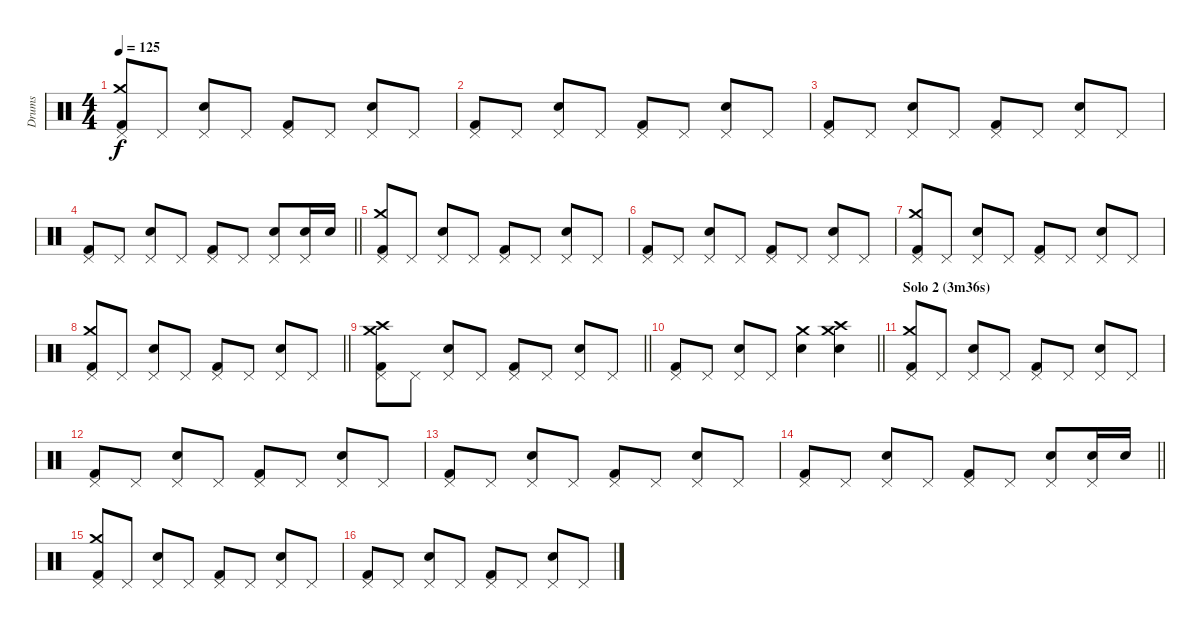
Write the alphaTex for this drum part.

\track ("Drums" "Drums") {instrument percussion}
\staff {score}
\articulation defaults
\ts (4 4)
\tempo 125
\clef neutral
\ks c
("Pedal Hi-Hat (hit)" "Crash medium (hit)" "Kick (hit) 2").8{dy f} "Pedal Hi-Hat (hit)".8 ("Pedal Hi-Hat (hit)" "Electric Snare (hit)").8 "Pedal Hi-Hat (hit)".8 ("Pedal Hi-Hat (hit)" "Kick (hit) 2").8 "Pedal Hi-Hat (hit)".8 ("Pedal Hi-Hat (hit)" "Electric Snare (hit)").8 "Pedal Hi-Hat (hit)".8 |
("Pedal Hi-Hat (hit)" "Kick (hit) 2").8 "Pedal Hi-Hat (hit)".8 ("Pedal Hi-Hat (hit)" "Electric Snare (hit)").8 "Pedal Hi-Hat (hit)".8 ("Pedal Hi-Hat (hit)" "Kick (hit) 2").8 "Pedal Hi-Hat (hit)".8 ("Pedal Hi-Hat (hit)" "Electric Snare (hit)").8 "Pedal Hi-Hat (hit)".8 |
("Pedal Hi-Hat (hit)" "Kick (hit) 2").8 "Pedal Hi-Hat (hit)".8 ("Pedal Hi-Hat (hit)" "Electric Snare (hit)").8 "Pedal Hi-Hat (hit)".8 ("Pedal Hi-Hat (hit)" "Kick (hit) 2").8 "Pedal Hi-Hat (hit)".8 ("Pedal Hi-Hat (hit)" "Electric Snare (hit)").8 "Pedal Hi-Hat (hit)".8 |
\barLineRight lightlight
("Pedal Hi-Hat (hit)" "Kick (hit) 2").8 "Pedal Hi-Hat (hit)".8 ("Pedal Hi-Hat (hit)" "Electric Snare (hit)").8 "Pedal Hi-Hat (hit)".8 ("Pedal Hi-Hat (hit)" "Kick (hit) 2").8 "Pedal Hi-Hat (hit)".8 ("Pedal Hi-Hat (hit)" "Electric Snare (hit)").8 ("Pedal Hi-Hat (hit)" "Electric Snare (hit)").16 "Electric Snare (hit)".16 |
("Pedal Hi-Hat (hit)" "Crash medium (hit)" "Kick (hit) 2").8 "Pedal Hi-Hat (hit)".8 ("Pedal Hi-Hat (hit)" "Electric Snare (hit)").8 "Pedal Hi-Hat (hit)".8 ("Pedal Hi-Hat (hit)" "Kick (hit) 2").8 "Pedal Hi-Hat (hit)".8 ("Pedal Hi-Hat (hit)" "Electric Snare (hit)").8 "Pedal Hi-Hat (hit)".8 |
("Pedal Hi-Hat (hit)" "Kick (hit) 2").8 "Pedal Hi-Hat (hit)".8 ("Pedal Hi-Hat (hit)" "Electric Snare (hit)").8 "Pedal Hi-Hat (hit)".8 ("Pedal Hi-Hat (hit)" "Kick (hit) 2").8 "Pedal Hi-Hat (hit)".8 ("Pedal Hi-Hat (hit)" "Electric Snare (hit)").8 "Pedal Hi-Hat (hit)".8 |
("Pedal Hi-Hat (hit)" "Crash medium (hit)" "Kick (hit) 2").8 "Pedal Hi-Hat (hit)".8 ("Pedal Hi-Hat (hit)" "Electric Snare (hit)").8 "Pedal Hi-Hat (hit)".8 ("Pedal Hi-Hat (hit)" "Kick (hit) 2").8 "Pedal Hi-Hat (hit)".8 ("Pedal Hi-Hat (hit)" "Electric Snare (hit)").8 "Pedal Hi-Hat (hit)".8 |
\barLineRight lightlight
("Pedal Hi-Hat (hit)" "Crash medium (hit)" "Kick (hit) 2").8 "Pedal Hi-Hat (hit)".8 ("Pedal Hi-Hat (hit)" "Electric Snare (hit)").8 "Pedal Hi-Hat (hit)".8 ("Pedal Hi-Hat (hit)" "Kick (hit) 2").8 "Pedal Hi-Hat (hit)".8 ("Pedal Hi-Hat (hit)" "Electric Snare (hit)").8 "Pedal Hi-Hat (hit)".8 |
\barLineRight lightlight
("Pedal Hi-Hat (hit)" "Crash medium (hit)" "Crash high (hit)" "Kick (hit) 2").8 "Pedal Hi-Hat (hit)".8 ("Pedal Hi-Hat (hit)" "Electric Snare (hit)").8 "Pedal Hi-Hat (hit)".8 ("Pedal Hi-Hat (hit)" "Kick (hit) 2").8 "Pedal Hi-Hat (hit)".8 ("Pedal Hi-Hat (hit)" "Electric Snare (hit)").8 "Pedal Hi-Hat (hit)".8 |
\barLineRight lightlight
("Pedal Hi-Hat (hit)" "Kick (hit) 2").8 "Pedal Hi-Hat (hit)".8 ("Pedal Hi-Hat (hit)" "Electric Snare (hit)").8 "Pedal Hi-Hat (hit)".8 ("Crash medium (hit)" "Electric Snare (hit)").4 ("Crash medium (hit)" "Crash high (hit)" "Electric Snare (hit)").4 |
\section ("" "Solo 2 (3m36s)")
("Pedal Hi-Hat (hit)" "Crash medium (hit)" "Kick (hit) 2").8 "Pedal Hi-Hat (hit)".8 ("Pedal Hi-Hat (hit)" "Electric Snare (hit)").8 "Pedal Hi-Hat (hit)".8 ("Pedal Hi-Hat (hit)" "Kick (hit) 2").8 "Pedal Hi-Hat (hit)".8 ("Pedal Hi-Hat (hit)" "Electric Snare (hit)").8 "Pedal Hi-Hat (hit)".8 |
("Pedal Hi-Hat (hit)" "Kick (hit) 2").8 "Pedal Hi-Hat (hit)".8 ("Pedal Hi-Hat (hit)" "Electric Snare (hit)").8 "Pedal Hi-Hat (hit)".8 ("Pedal Hi-Hat (hit)" "Kick (hit) 2").8 "Pedal Hi-Hat (hit)".8 ("Pedal Hi-Hat (hit)" "Electric Snare (hit)").8 "Pedal Hi-Hat (hit)".8 |
("Pedal Hi-Hat (hit)" "Kick (hit) 2").8 "Pedal Hi-Hat (hit)".8 ("Pedal Hi-Hat (hit)" "Electric Snare (hit)").8 "Pedal Hi-Hat (hit)".8 ("Pedal Hi-Hat (hit)" "Kick (hit) 2").8 "Pedal Hi-Hat (hit)".8 ("Pedal Hi-Hat (hit)" "Electric Snare (hit)").8 "Pedal Hi-Hat (hit)".8 |
\barLineRight lightlight
("Pedal Hi-Hat (hit)" "Kick (hit) 2").8 "Pedal Hi-Hat (hit)".8 ("Pedal Hi-Hat (hit)" "Electric Snare (hit)").8 "Pedal Hi-Hat (hit)".8 ("Pedal Hi-Hat (hit)" "Kick (hit) 2").8 "Pedal Hi-Hat (hit)".8 ("Pedal Hi-Hat (hit)" "Electric Snare (hit)").8 ("Pedal Hi-Hat (hit)" "Electric Snare (hit)").16 "Electric Snare (hit)".16 |
("Pedal Hi-Hat (hit)" "Crash medium (hit)" "Kick (hit) 2").8 "Pedal Hi-Hat (hit)".8 ("Pedal Hi-Hat (hit)" "Electric Snare (hit)").8 "Pedal Hi-Hat (hit)".8 ("Pedal Hi-Hat (hit)" "Kick (hit) 2").8 "Pedal Hi-Hat (hit)".8 ("Pedal Hi-Hat (hit)" "Electric Snare (hit)").8 "Pedal Hi-Hat (hit)".8 |
("Pedal Hi-Hat (hit)" "Kick (hit) 2").8 "Pedal Hi-Hat (hit)".8 ("Pedal Hi-Hat (hit)" "Electric Snare (hit)").8 "Pedal Hi-Hat (hit)".8 ("Pedal Hi-Hat (hit)" "Kick (hit) 2").8 "Pedal Hi-Hat (hit)".8 ("Pedal Hi-Hat (hit)" "Electric Snare (hit)").8 "Pedal Hi-Hat (hit)".8
